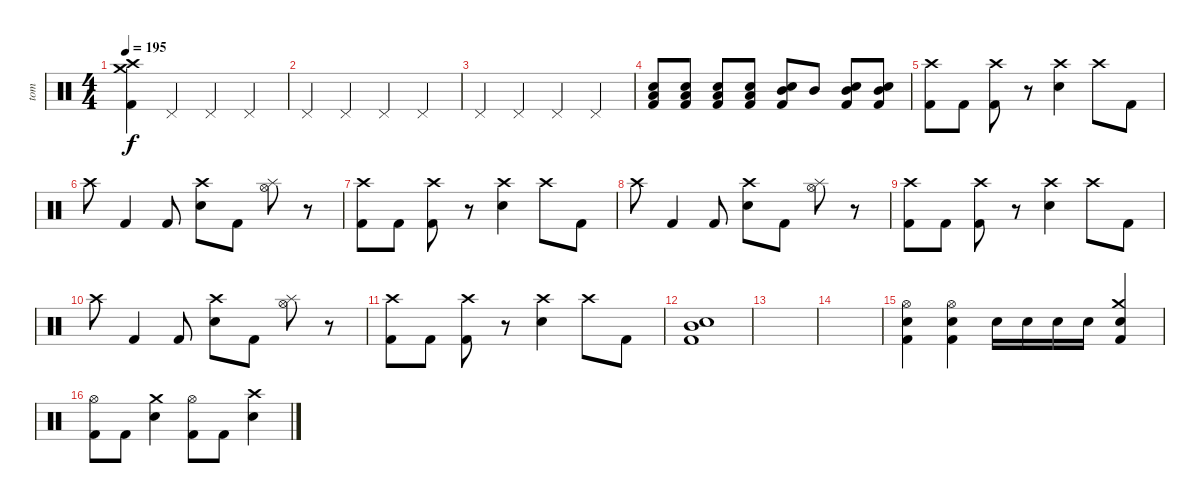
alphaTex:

\track ("tom" "tom") {instrument percussion}
\staff {score}
\articulation defaults
\ts (4 4)
\tempo 195
\clef neutral
\ks c
("Crash high (hit)" "Kick (hit) 2" "Crash medium (hit)").4{dy f} "Pedal Hi-Hat (hit)".4 "Pedal Hi-Hat (hit)".4 "Pedal Hi-Hat (hit)".4 |
"Pedal Hi-Hat (hit)".4 "Pedal Hi-Hat (hit)".4 "Pedal Hi-Hat (hit)".4 "Pedal Hi-Hat (hit)".4 |
"Pedal Hi-Hat (hit)".4 "Pedal Hi-Hat (hit)".4 "Pedal Hi-Hat (hit)".4 "Pedal Hi-Hat (hit)".4 |
("Low Tom (hit)" "Electric Snare (hit)" "Kick (hit) 2").8 ("Low Tom (hit)" "Electric Snare (hit)" "Kick (hit) 2").8 ("Low Tom (hit)" "Electric Snare (hit)" "Kick (hit) 2").8 ("Low Tom (hit)" "Electric Snare (hit)" "Kick (hit) 2").8 ("Mid Tom (hit)" "Electric Snare (hit)" "Kick (hit) 2").8 "Mid Tom (hit)".8 ("Mid Tom (hit)" "Electric Snare (hit)" "Kick (hit) 2").8 ("Mid Tom (hit)" "Electric Snare (hit)" "Kick (hit) 2").8 |
("Crash high (hit)" "Kick (hit) 2").8 "Kick (hit) 2".8 ("Crash high (hit)" "Kick (hit) 2").8 r.8 ("Crash high (hit)" "Electric Snare (hit)").4 "Crash high (hit)".8 "Kick (hit) 2".8 |
"Crash high (hit)".8 "Kick (hit) 2".4 "Kick (hit) 2".8 ("Crash high (hit)" "Electric Snare (hit)").8 "Kick (hit) 2".8 ("Splash (hit)" "Hi-Hat (open)").8 r.8 |
("Crash high (hit)" "Kick (hit) 2").8 "Kick (hit) 2".8 ("Crash high (hit)" "Kick (hit) 2").8 r.8 ("Crash high (hit)" "Electric Snare (hit)").4 "Crash high (hit)".8 "Kick (hit) 2".8 |
"Crash high (hit)".8 "Kick (hit) 2".4 "Kick (hit) 2".8 ("Crash high (hit)" "Electric Snare (hit)").8 "Kick (hit) 2".8 ("Splash (hit)" "Hi-Hat (open)").8 r.8 |
("Crash high (hit)" "Kick (hit) 2").8 "Kick (hit) 2".8 ("Crash high (hit)" "Kick (hit) 2").8 r.8 ("Crash high (hit)" "Electric Snare (hit)").4 "Crash high (hit)".8 "Kick (hit) 2".8 |
"Crash high (hit)".8 "Kick (hit) 2".4 "Kick (hit) 2".8 ("Crash high (hit)" "Electric Snare (hit)").8 "Kick (hit) 2".8 ("Splash (hit)" "Hi-Hat (open)").8 r.8 |
("Crash high (hit)" "Kick (hit) 2").8 "Kick (hit) 2".8 ("Crash high (hit)" "Kick (hit) 2").8 r.8 ("Crash high (hit)" "Electric Snare (hit)").4 "Crash high (hit)".8 "Kick (hit) 2".8 |
("Mid Tom (hit)" "Kick (hit) 2" "Electric Snare (hit)").1 |
|
|
("Hi-Hat (open)" "Electric Snare (hit)" "Kick (hit) 2").4 ("Hi-Hat (open)" "Electric Snare (hit)" "Kick (hit) 2").4 "Electric Snare (hit)".16 "Electric Snare (hit)".16 "Electric Snare (hit)".16 "Electric Snare (hit)".16 ("Kick (hit) 2" "Crash medium (hit)" "Electric Snare (hit)").4 |
("Hi-Hat (open)" "Kick (hit) 2").8 "Kick (hit) 2".8 ("Crash medium (hit)" "Electric Snare (hit)").4 ("Hi-Hat (open)" "Kick (hit) 2").8 "Kick (hit) 2".8 ("Crash high (hit)" "Electric Snare (hit)").4
